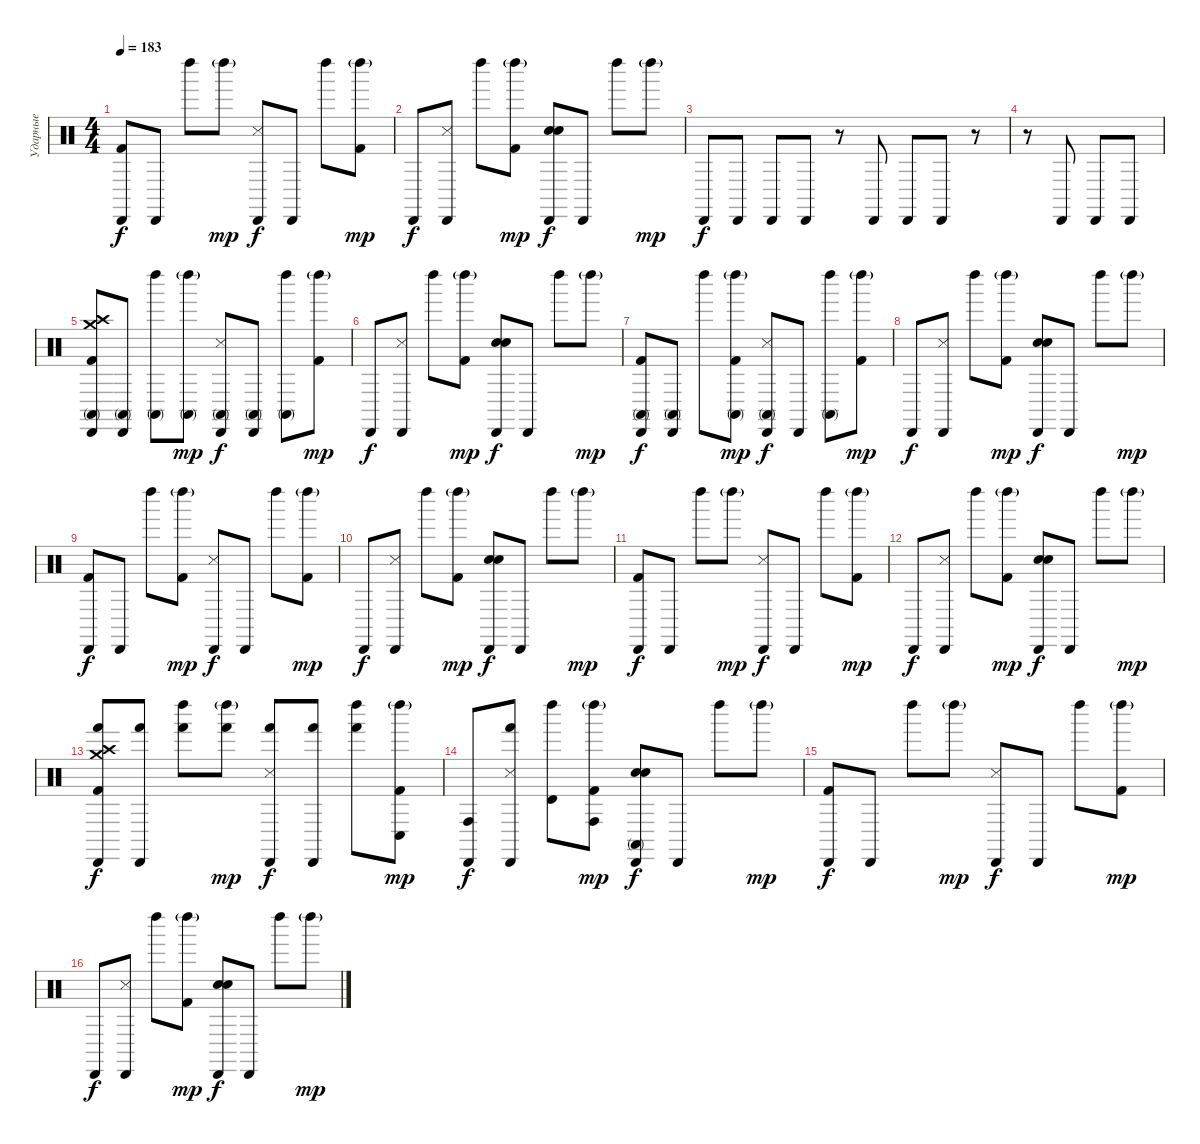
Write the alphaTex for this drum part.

\track ("Ударные" "Ударные") {instrument percussion}
\staff {score}
\articulation defaults
\ts (4 4)
\tempo 183
\clef neutral
\ks c
("Kick (hit) 2" "Cabasa (hit)").8{dy f} "Cabasa (hit)".8 "Left Maraca (hit)".8 "Left Maraca (hit)"{g}.8{dy mp} ("Snare (side stick) 3" "Cabasa (hit)").8{dy f} "Cabasa (hit)".8 "Left Maraca (hit)".8 ("Kick (hit) 2" "Left Maraca (hit)"{g}).8{dy mp} |
"Cabasa (hit)".8{dy f} ("Snare (side stick) 3" "Cabasa (hit)").8 "Left Maraca (hit)".8 ("Kick (hit) 2" "Left Maraca (hit)"{g}).8{dy mp} ("Hand Clap (hit)" "Snare (hit) 2" "Cabasa (hit)").8{dy f} "Cabasa (hit)".8 "Left Maraca (hit)".8 "Left Maraca (hit)"{g}.8{dy mp} |
"Cabasa (hit)".8{dy f} "Cabasa (hit)".8 "Cabasa (hit)".8 "Cabasa (hit)".8 r.8 "Cabasa (hit)".8 "Cabasa (hit)".8 "Cabasa (hit)".8 r.8 |
r.8 "Cabasa (hit)".8 "Cabasa (hit)".8 "Cabasa (hit)".8 |
("Crash high (hit)" "Kick (hit) 2" "Crash medium (hit)" "Cabasa (hit)" "Conga high (mute)").8 ("Cabasa (hit)" "Conga high (mute)").8 ("Left Maraca (hit)" "Conga high (mute)").8 ("Left Maraca (hit)"{g} "Conga high (mute)").8{dy mp} ("Snare (side stick) 3" "Cabasa (hit)" "Conga high (mute)").8{dy f} ("Cabasa (hit)" "Conga high (mute)").8 ("Left Maraca (hit)" "Conga high (mute)").8 ("Kick (hit) 2" "Left Maraca (hit)"{g}).8{dy mp} |
"Cabasa (hit)".8{dy f} ("Snare (side stick) 3" "Cabasa (hit)").8 "Left Maraca (hit)".8 ("Kick (hit) 2" "Left Maraca (hit)"{g}).8{dy mp} ("Hand Clap (hit)" "Snare (hit) 2" "Cabasa (hit)").8{dy f} "Cabasa (hit)".8 "Left Maraca (hit)".8 "Left Maraca (hit)"{g}.8{dy mp} |
("Kick (hit) 2" "Cabasa (hit)" "Conga high (mute)").8{dy f} ("Cabasa (hit)" "Conga high (mute)").8 "Left Maraca (hit)".8 ("Kick (hit) 2" "Left Maraca (hit)"{g} "Conga high (mute)").8{dy mp} ("Snare (side stick) 3" "Cabasa (hit)" "Conga high (mute)").8{dy f} "Cabasa (hit)".8 ("Left Maraca (hit)" "Conga high (mute)").8 ("Kick (hit) 2" "Left Maraca (hit)"{g}).8{dy mp} |
"Cabasa (hit)".8{dy f} ("Snare (side stick) 3" "Cabasa (hit)").8 "Left Maraca (hit)".8 ("Kick (hit) 2" "Left Maraca (hit)"{g}).8{dy mp} ("Hand Clap (hit)" "Snare (hit) 2" "Cabasa (hit)").8{dy f} "Cabasa (hit)".8 "Left Maraca (hit)".8 "Left Maraca (hit)"{g}.8{dy mp} |
("Kick (hit) 2" "Cabasa (hit)").8{dy f} "Cabasa (hit)".8 "Left Maraca (hit)".8 ("Kick (hit) 2" "Left Maraca (hit)"{g}).8{dy mp} ("Snare (side stick) 3" "Cabasa (hit)").8{dy f} "Cabasa (hit)".8 "Left Maraca (hit)".8 ("Kick (hit) 2" "Left Maraca (hit)"{g}).8{dy mp} |
"Cabasa (hit)".8{dy f} ("Snare (side stick) 3" "Cabasa (hit)").8 "Left Maraca (hit)".8 ("Kick (hit) 2" "Left Maraca (hit)"{g}).8{dy mp} ("Hand Clap (hit)" "Snare (hit) 2" "Cabasa (hit)").8{dy f} "Cabasa (hit)".8 "Left Maraca (hit)".8 "Left Maraca (hit)"{g}.8{dy mp} |
("Kick (hit) 2" "Cabasa (hit)").8{dy f} "Cabasa (hit)".8 "Left Maraca (hit)".8 "Left Maraca (hit)"{g}.8{dy mp} ("Snare (side stick) 3" "Cabasa (hit)").8{dy f} "Cabasa (hit)".8 "Left Maraca (hit)".8 ("Kick (hit) 2" "Left Maraca (hit)"{g}).8{dy mp} |
"Cabasa (hit)".8{dy f} ("Snare (side stick) 3" "Cabasa (hit)").8 "Left Maraca (hit)".8 ("Kick (hit) 2" "Left Maraca (hit)"{g}).8{dy mp} ("Hand Clap (hit)" "Snare (hit) 2" "Cabasa (hit)").8{dy f} "Cabasa (hit)".8 "Left Maraca (hit)".8 "Left Maraca (hit)"{g}.8{dy mp} |
("Crash high (hit)" "Kick (hit) 2" "Crash medium (hit)" "Cabasa (hit)" "Hand (hit)").8{dy f} ("Cabasa (hit)" "Hand (hit)").8 ("Left Maraca (hit)" "Hand (hit)").8 ("Left Maraca (hit)"{g} "Hand (hit)").8{dy mp} ("Snare (side stick) 3" "Cabasa (hit)" "Hand (hit)").8{dy f} ("Cabasa (hit)" "Hand (hit)").8 ("Left Maraca (hit)" "Hand (hit)").8 ("Kick (hit) 2" "Left Maraca (hit)"{g} "Conga low (hit)").8{dy mp} |
("Cabasa (hit)" "Conga high (hit)").8{dy f} ("Snare (side stick) 3" "Cabasa (hit)" "Hand (hit)").8 ("Left Maraca (hit)" "Timbale high (hit)").8 ("Kick (hit) 2" "Left Maraca (hit)"{g} "Conga high (hit)").8{dy mp} ("Hand Clap (hit)" "Snare (hit) 2" "Cabasa (hit)" "Conga high (mute)").8{dy f} "Cabasa (hit)".8 "Left Maraca (hit)".8 "Left Maraca (hit)"{g}.8{dy mp} |
("Kick (hit) 2" "Cabasa (hit)").8{dy f} "Cabasa (hit)".8 "Left Maraca (hit)".8 "Left Maraca (hit)"{g}.8{dy mp} ("Snare (side stick) 3" "Cabasa (hit)").8{dy f} "Cabasa (hit)".8 "Left Maraca (hit)".8 ("Kick (hit) 2" "Left Maraca (hit)"{g}).8{dy mp} |
"Cabasa (hit)".8{dy f} ("Snare (side stick) 3" "Cabasa (hit)").8 "Left Maraca (hit)".8 ("Kick (hit) 2" "Left Maraca (hit)"{g}).8{dy mp} ("Hand Clap (hit)" "Snare (hit) 2" "Cabasa (hit)").8{dy f} "Cabasa (hit)".8 "Left Maraca (hit)".8 "Left Maraca (hit)"{g}.8{dy mp}
